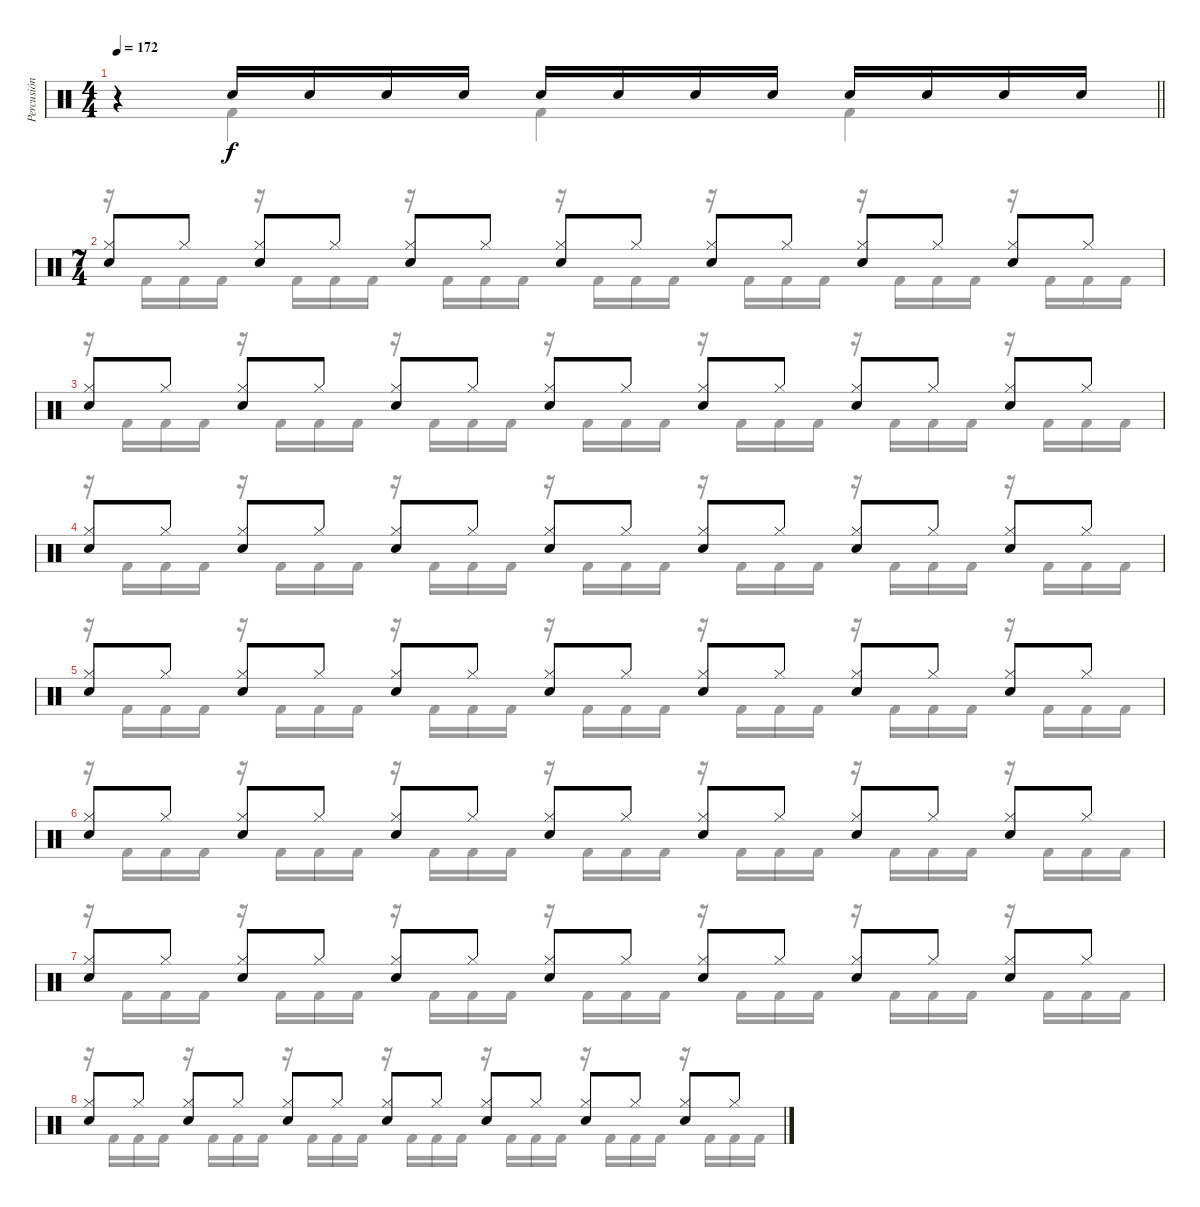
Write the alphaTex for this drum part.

\track ("Percusión" "Percusión") {instrument percussion}
\staff {score}
\articulation defaults
\voice
\ts (4 4)
\tempo 172
\clef neutral
\barLineRight lightlight
\ks c
r.4{dy f} "Snare (hit) 2".16 "Snare (hit) 2".16 "Snare (hit) 2".16 "Snare (hit) 2".16 "Snare (hit) 2".16 "Snare (hit) 2".16 "Snare (hit) 2".16 "Snare (hit) 2".16 "Snare (hit) 2".16 "Snare (hit) 2".16 "Snare (hit) 2".16 "Snare (hit) 2".16 |
\ts (7 4)
("Hi-Hat (closed)" "Snare (hit) 2").8 "Hi-Hat (closed)".8 ("Hi-Hat (closed)" "Snare (hit) 2").8 "Hi-Hat (closed)".8 ("Hi-Hat (closed)" "Snare (hit) 2").8 "Hi-Hat (closed)".8 ("Hi-Hat (closed)" "Snare (hit) 2").8 "Hi-Hat (closed)".8 ("Hi-Hat (closed)" "Snare (hit) 2").8 "Hi-Hat (closed)".8 ("Hi-Hat (closed)" "Snare (hit) 2").8 "Hi-Hat (closed)".8 ("Hi-Hat (closed)" "Snare (hit) 2").8 "Hi-Hat (closed)".8 |
("Hi-Hat (closed)" "Snare (hit) 2").8 "Hi-Hat (closed)".8 ("Hi-Hat (closed)" "Snare (hit) 2").8 "Hi-Hat (closed)".8 ("Hi-Hat (closed)" "Snare (hit) 2").8 "Hi-Hat (closed)".8 ("Hi-Hat (closed)" "Snare (hit) 2").8 "Hi-Hat (closed)".8 ("Hi-Hat (closed)" "Snare (hit) 2").8 "Hi-Hat (closed)".8 ("Hi-Hat (closed)" "Snare (hit) 2").8 "Hi-Hat (closed)".8 ("Hi-Hat (closed)" "Snare (hit) 2").8 "Hi-Hat (closed)".8 |
("Hi-Hat (closed)" "Snare (hit) 2").8 "Hi-Hat (closed)".8 ("Hi-Hat (closed)" "Snare (hit) 2").8 "Hi-Hat (closed)".8 ("Hi-Hat (closed)" "Snare (hit) 2").8 "Hi-Hat (closed)".8 ("Hi-Hat (closed)" "Snare (hit) 2").8 "Hi-Hat (closed)".8 ("Hi-Hat (closed)" "Snare (hit) 2").8 "Hi-Hat (closed)".8 ("Hi-Hat (closed)" "Snare (hit) 2").8 "Hi-Hat (closed)".8 ("Hi-Hat (closed)" "Snare (hit) 2").8 "Hi-Hat (closed)".8 |
("Hi-Hat (closed)" "Snare (hit) 2").8 "Hi-Hat (closed)".8 ("Hi-Hat (closed)" "Snare (hit) 2").8 "Hi-Hat (closed)".8 ("Hi-Hat (closed)" "Snare (hit) 2").8 "Hi-Hat (closed)".8 ("Hi-Hat (closed)" "Snare (hit) 2").8 "Hi-Hat (closed)".8 ("Hi-Hat (closed)" "Snare (hit) 2").8 "Hi-Hat (closed)".8 ("Hi-Hat (closed)" "Snare (hit) 2").8 "Hi-Hat (closed)".8 ("Hi-Hat (closed)" "Snare (hit) 2").8 "Hi-Hat (closed)".8 |
("Hi-Hat (closed)" "Snare (hit) 2").8 "Hi-Hat (closed)".8 ("Hi-Hat (closed)" "Snare (hit) 2").8 "Hi-Hat (closed)".8 ("Hi-Hat (closed)" "Snare (hit) 2").8 "Hi-Hat (closed)".8 ("Hi-Hat (closed)" "Snare (hit) 2").8 "Hi-Hat (closed)".8 ("Hi-Hat (closed)" "Snare (hit) 2").8 "Hi-Hat (closed)".8 ("Hi-Hat (closed)" "Snare (hit) 2").8 "Hi-Hat (closed)".8 ("Hi-Hat (closed)" "Snare (hit) 2").8 "Hi-Hat (closed)".8 |
("Hi-Hat (closed)" "Snare (hit) 2").8 "Hi-Hat (closed)".8 ("Hi-Hat (closed)" "Snare (hit) 2").8 "Hi-Hat (closed)".8 ("Hi-Hat (closed)" "Snare (hit) 2").8 "Hi-Hat (closed)".8 ("Hi-Hat (closed)" "Snare (hit) 2").8 "Hi-Hat (closed)".8 ("Hi-Hat (closed)" "Snare (hit) 2").8 "Hi-Hat (closed)".8 ("Hi-Hat (closed)" "Snare (hit) 2").8 "Hi-Hat (closed)".8 ("Hi-Hat (closed)" "Snare (hit) 2").8 "Hi-Hat (closed)".8 |
("Hi-Hat (closed)" "Snare (hit) 2").8 "Hi-Hat (closed)".8 ("Hi-Hat (closed)" "Snare (hit) 2").8 "Hi-Hat (closed)".8 ("Hi-Hat (closed)" "Snare (hit) 2").8 "Hi-Hat (closed)".8 ("Hi-Hat (closed)" "Snare (hit) 2").8 "Hi-Hat (closed)".8 ("Hi-Hat (closed)" "Snare (hit) 2").8 "Hi-Hat (closed)".8 ("Hi-Hat (closed)" "Snare (hit) 2").8 "Hi-Hat (closed)".8 ("Hi-Hat (closed)" "Snare (hit) 2").8 "Hi-Hat (closed)".8
\voice
\clef neutral
\ottava regular
\simile none
\barLineRight lightlight
\ks c
r.4{dy f} "Kick (hit) 2".4 "Kick (hit) 2".4 "Kick (hit) 2".4 |
r.16 "Kick (hit) 2".16 "Kick (hit) 2".16 "Kick (hit) 2".16 r.16 "Kick (hit) 2".16 "Kick (hit) 2".16 "Kick (hit) 2".16 r.16 "Kick (hit) 2".16 "Kick (hit) 2".16 "Kick (hit) 2".16 r.16 "Kick (hit) 2".16 "Kick (hit) 2".16 "Kick (hit) 2".16 r.16 "Kick (hit) 2".16 "Kick (hit) 2".16 "Kick (hit) 2".16 r.16 "Kick (hit) 2".16 "Kick (hit) 2".16 "Kick (hit) 2".16 r.16 "Kick (hit) 2".16 "Kick (hit) 2".16 "Kick (hit) 2".16 |
r.16 "Kick (hit) 2".16 "Kick (hit) 2".16 "Kick (hit) 2".16 r.16 "Kick (hit) 2".16 "Kick (hit) 2".16 "Kick (hit) 2".16 r.16 "Kick (hit) 2".16 "Kick (hit) 2".16 "Kick (hit) 2".16 r.16 "Kick (hit) 2".16 "Kick (hit) 2".16 "Kick (hit) 2".16 r.16 "Kick (hit) 2".16 "Kick (hit) 2".16 "Kick (hit) 2".16 r.16 "Kick (hit) 2".16 "Kick (hit) 2".16 "Kick (hit) 2".16 r.16 "Kick (hit) 2".16 "Kick (hit) 2".16 "Kick (hit) 2".16 |
r.16 "Kick (hit) 2".16 "Kick (hit) 2".16 "Kick (hit) 2".16 r.16 "Kick (hit) 2".16 "Kick (hit) 2".16 "Kick (hit) 2".16 r.16 "Kick (hit) 2".16 "Kick (hit) 2".16 "Kick (hit) 2".16 r.16 "Kick (hit) 2".16 "Kick (hit) 2".16 "Kick (hit) 2".16 r.16 "Kick (hit) 2".16 "Kick (hit) 2".16 "Kick (hit) 2".16 r.16 "Kick (hit) 2".16 "Kick (hit) 2".16 "Kick (hit) 2".16 r.16 "Kick (hit) 2".16 "Kick (hit) 2".16 "Kick (hit) 2".16 |
r.16 "Kick (hit) 2".16 "Kick (hit) 2".16 "Kick (hit) 2".16 r.16 "Kick (hit) 2".16 "Kick (hit) 2".16 "Kick (hit) 2".16 r.16 "Kick (hit) 2".16 "Kick (hit) 2".16 "Kick (hit) 2".16 r.16 "Kick (hit) 2".16 "Kick (hit) 2".16 "Kick (hit) 2".16 r.16 "Kick (hit) 2".16 "Kick (hit) 2".16 "Kick (hit) 2".16 r.16 "Kick (hit) 2".16 "Kick (hit) 2".16 "Kick (hit) 2".16 r.16 "Kick (hit) 2".16 "Kick (hit) 2".16 "Kick (hit) 2".16 |
r.16 "Kick (hit) 2".16 "Kick (hit) 2".16 "Kick (hit) 2".16 r.16 "Kick (hit) 2".16 "Kick (hit) 2".16 "Kick (hit) 2".16 r.16 "Kick (hit) 2".16 "Kick (hit) 2".16 "Kick (hit) 2".16 r.16 "Kick (hit) 2".16 "Kick (hit) 2".16 "Kick (hit) 2".16 r.16 "Kick (hit) 2".16 "Kick (hit) 2".16 "Kick (hit) 2".16 r.16 "Kick (hit) 2".16 "Kick (hit) 2".16 "Kick (hit) 2".16 r.16 "Kick (hit) 2".16 "Kick (hit) 2".16 "Kick (hit) 2".16 |
r.16 "Kick (hit) 2".16 "Kick (hit) 2".16 "Kick (hit) 2".16 r.16 "Kick (hit) 2".16 "Kick (hit) 2".16 "Kick (hit) 2".16 r.16 "Kick (hit) 2".16 "Kick (hit) 2".16 "Kick (hit) 2".16 r.16 "Kick (hit) 2".16 "Kick (hit) 2".16 "Kick (hit) 2".16 r.16 "Kick (hit) 2".16 "Kick (hit) 2".16 "Kick (hit) 2".16 r.16 "Kick (hit) 2".16 "Kick (hit) 2".16 "Kick (hit) 2".16 r.16 "Kick (hit) 2".16 "Kick (hit) 2".16 "Kick (hit) 2".16 |
r.16 "Kick (hit) 2".16 "Kick (hit) 2".16 "Kick (hit) 2".16 r.16 "Kick (hit) 2".16 "Kick (hit) 2".16 "Kick (hit) 2".16 r.16 "Kick (hit) 2".16 "Kick (hit) 2".16 "Kick (hit) 2".16 r.16 "Kick (hit) 2".16 "Kick (hit) 2".16 "Kick (hit) 2".16 r.16 "Kick (hit) 2".16 "Kick (hit) 2".16 "Kick (hit) 2".16 r.16 "Kick (hit) 2".16 "Kick (hit) 2".16 "Kick (hit) 2".16 r.16 "Kick (hit) 2".16 "Kick (hit) 2".16 "Kick (hit) 2".16
